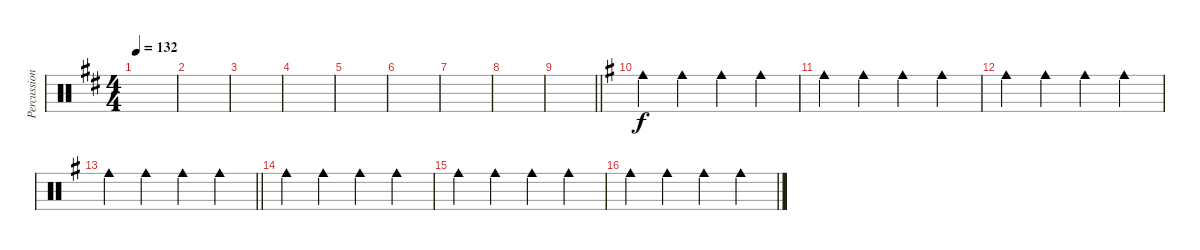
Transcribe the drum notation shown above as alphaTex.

\track ("Percussion" "Percussion") {instrument percussion}
\staff {score}
\articulation defaults
\ts (4 4)
\tempo 132
\clef neutral
\ks d
|
|
|
|
|
|
|
|
\barLineRight lightlight
|
\ks eminor "Cowbell medium (hit)".4 "Cowbell medium (hit)".4 "Cowbell medium (hit)".4 "Cowbell medium (hit)".4
|
"Cowbell medium (hit)".4 "Cowbell medium (hit)".4 "Cowbell medium (hit)".4 "Cowbell medium (hit)".4 |
"Cowbell medium (hit)".4 "Cowbell medium (hit)".4 "Cowbell medium (hit)".4 "Cowbell medium (hit)".4 |
\barLineRight lightlight "Cowbell medium (hit)".4 "Cowbell medium (hit)".4 "Cowbell medium (hit)".4 "Cowbell medium (hit)".4
|
"Cowbell medium (hit)".4 "Cowbell medium (hit)".4 "Cowbell medium (hit)".4 "Cowbell medium (hit)".4 |
"Cowbell medium (hit)".4 "Cowbell medium (hit)".4 "Cowbell medium (hit)".4 "Cowbell medium (hit)".4 |
"Cowbell medium (hit)".4 "Cowbell medium (hit)".4 "Cowbell medium (hit)".4 "Cowbell medium (hit)".4
